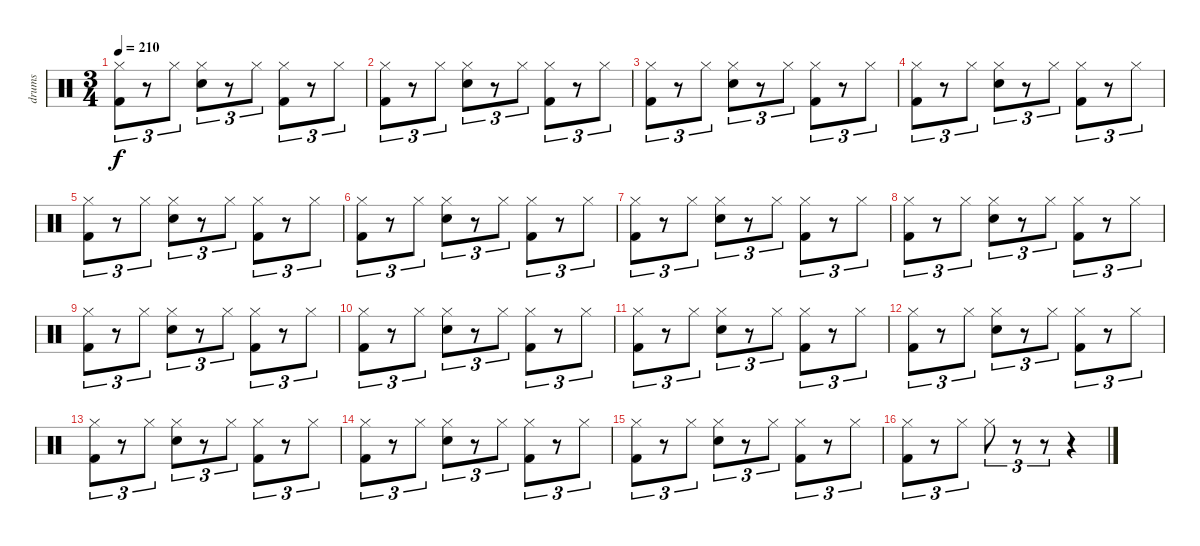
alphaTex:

\track ("drums" "drums") {instrument percussion}
\staff {score}
\articulation defaults
\ts (3 4)
\tempo 210
\clef neutral
\ks c
("Hi-Hat (closed)" "Kick (hit) 2").8{tu (3 2) dy f} r.8{tu (3 2)} "Hi-Hat (closed)".8{tu (3 2)} ("Hi-Hat (closed)" "Snare (hit) 2").8{tu (3 2)} r.8{tu (3 2)} "Hi-Hat (closed)".8{tu (3 2)} ("Hi-Hat (closed)" "Kick (hit) 2").8{tu (3 2)} r.8{tu (3 2)} "Hi-Hat (closed)".8{tu (3 2)} |
("Hi-Hat (closed)" "Kick (hit) 2").8{tu (3 2)} r.8{tu (3 2)} "Hi-Hat (closed)".8{tu (3 2)} ("Hi-Hat (closed)" "Snare (hit) 2").8{tu (3 2)} r.8{tu (3 2)} "Hi-Hat (closed)".8{tu (3 2)} ("Hi-Hat (closed)" "Kick (hit) 2").8{tu (3 2)} r.8{tu (3 2)} "Hi-Hat (closed)".8{tu (3 2)} |
("Hi-Hat (closed)" "Kick (hit) 2").8{tu (3 2)} r.8{tu (3 2)} "Hi-Hat (closed)".8{tu (3 2)} ("Hi-Hat (closed)" "Snare (hit) 2").8{tu (3 2)} r.8{tu (3 2)} "Hi-Hat (closed)".8{tu (3 2)} ("Hi-Hat (closed)" "Kick (hit) 2").8{tu (3 2)} r.8{tu (3 2)} "Hi-Hat (closed)".8{tu (3 2)} |
("Hi-Hat (closed)" "Kick (hit) 2").8{tu (3 2)} r.8{tu (3 2)} "Hi-Hat (closed)".8{tu (3 2)} ("Hi-Hat (closed)" "Snare (hit) 2").8{tu (3 2)} r.8{tu (3 2)} "Hi-Hat (closed)".8{tu (3 2)} ("Hi-Hat (closed)" "Kick (hit) 2").8{tu (3 2)} r.8{tu (3 2)} "Hi-Hat (closed)".8{tu (3 2)} |
("Hi-Hat (closed)" "Kick (hit) 2").8{tu (3 2)} r.8{tu (3 2)} "Hi-Hat (closed)".8{tu (3 2)} ("Hi-Hat (closed)" "Snare (hit) 2").8{tu (3 2)} r.8{tu (3 2)} "Hi-Hat (closed)".8{tu (3 2)} ("Hi-Hat (closed)" "Kick (hit) 2").8{tu (3 2)} r.8{tu (3 2)} "Hi-Hat (closed)".8{tu (3 2)} |
("Hi-Hat (closed)" "Kick (hit) 2").8{tu (3 2)} r.8{tu (3 2)} "Hi-Hat (closed)".8{tu (3 2)} ("Hi-Hat (closed)" "Snare (hit) 2").8{tu (3 2)} r.8{tu (3 2)} "Hi-Hat (closed)".8{tu (3 2)} ("Hi-Hat (closed)" "Kick (hit) 2").8{tu (3 2)} r.8{tu (3 2)} "Hi-Hat (closed)".8{tu (3 2)} |
("Hi-Hat (closed)" "Kick (hit) 2").8{tu (3 2)} r.8{tu (3 2)} "Hi-Hat (closed)".8{tu (3 2)} ("Hi-Hat (closed)" "Snare (hit) 2").8{tu (3 2)} r.8{tu (3 2)} "Hi-Hat (closed)".8{tu (3 2)} ("Hi-Hat (closed)" "Kick (hit) 2").8{tu (3 2)} r.8{tu (3 2)} "Hi-Hat (closed)".8{tu (3 2)} |
("Hi-Hat (closed)" "Kick (hit) 2").8{tu (3 2)} r.8{tu (3 2)} "Hi-Hat (closed)".8{tu (3 2)} ("Hi-Hat (closed)" "Snare (hit) 2").8{tu (3 2)} r.8{tu (3 2)} "Hi-Hat (closed)".8{tu (3 2)} ("Hi-Hat (closed)" "Kick (hit) 2").8{tu (3 2)} r.8{tu (3 2)} "Hi-Hat (closed)".8{tu (3 2)} |
("Hi-Hat (closed)" "Kick (hit) 2").8{tu (3 2)} r.8{tu (3 2)} "Hi-Hat (closed)".8{tu (3 2)} ("Hi-Hat (closed)" "Snare (hit) 2").8{tu (3 2)} r.8{tu (3 2)} "Hi-Hat (closed)".8{tu (3 2)} ("Hi-Hat (closed)" "Kick (hit) 2").8{tu (3 2)} r.8{tu (3 2)} "Hi-Hat (closed)".8{tu (3 2)} |
("Hi-Hat (closed)" "Kick (hit) 2").8{tu (3 2)} r.8{tu (3 2)} "Hi-Hat (closed)".8{tu (3 2)} ("Hi-Hat (closed)" "Snare (hit) 2").8{tu (3 2)} r.8{tu (3 2)} "Hi-Hat (closed)".8{tu (3 2)} ("Hi-Hat (closed)" "Kick (hit) 2").8{tu (3 2)} r.8{tu (3 2)} "Hi-Hat (closed)".8{tu (3 2)} |
("Hi-Hat (closed)" "Kick (hit) 2").8{tu (3 2)} r.8{tu (3 2)} "Hi-Hat (closed)".8{tu (3 2)} ("Hi-Hat (closed)" "Snare (hit) 2").8{tu (3 2)} r.8{tu (3 2)} "Hi-Hat (closed)".8{tu (3 2)} ("Hi-Hat (closed)" "Kick (hit) 2").8{tu (3 2)} r.8{tu (3 2)} "Hi-Hat (closed)".8{tu (3 2)} |
("Hi-Hat (closed)" "Kick (hit) 2").8{tu (3 2)} r.8{tu (3 2)} "Hi-Hat (closed)".8{tu (3 2)} ("Hi-Hat (closed)" "Snare (hit) 2").8{tu (3 2)} r.8{tu (3 2)} "Hi-Hat (closed)".8{tu (3 2)} ("Hi-Hat (closed)" "Kick (hit) 2").8{tu (3 2)} r.8{tu (3 2)} "Hi-Hat (closed)".8{tu (3 2)} |
("Hi-Hat (closed)" "Kick (hit) 2").8{tu (3 2)} r.8{tu (3 2)} "Hi-Hat (closed)".8{tu (3 2)} ("Hi-Hat (closed)" "Snare (hit) 2").8{tu (3 2)} r.8{tu (3 2)} "Hi-Hat (closed)".8{tu (3 2)} ("Hi-Hat (closed)" "Kick (hit) 2").8{tu (3 2)} r.8{tu (3 2)} "Hi-Hat (closed)".8{tu (3 2)} |
("Hi-Hat (closed)" "Kick (hit) 2").8{tu (3 2)} r.8{tu (3 2)} "Hi-Hat (closed)".8{tu (3 2)} ("Hi-Hat (closed)" "Snare (hit) 2").8{tu (3 2)} r.8{tu (3 2)} "Hi-Hat (closed)".8{tu (3 2)} ("Hi-Hat (closed)" "Kick (hit) 2").8{tu (3 2)} r.8{tu (3 2)} "Hi-Hat (closed)".8{tu (3 2)} |
("Hi-Hat (closed)" "Kick (hit) 2").8{tu (3 2)} r.8{tu (3 2)} "Hi-Hat (closed)".8{tu (3 2)} ("Hi-Hat (closed)" "Snare (hit) 2").8{tu (3 2)} r.8{tu (3 2)} "Hi-Hat (closed)".8{tu (3 2)} ("Hi-Hat (closed)" "Kick (hit) 2").8{tu (3 2)} r.8{tu (3 2)} "Hi-Hat (closed)".8{tu (3 2)} |
("Hi-Hat (closed)" "Kick (hit) 2").8{tu (3 2)} r.8{tu (3 2)} "Hi-Hat (closed)".8{tu (3 2)} "Hi-Hat (closed)".8{tu (3 2)} r.8{tu (3 2)} r.8{tu (3 2)} r.4
